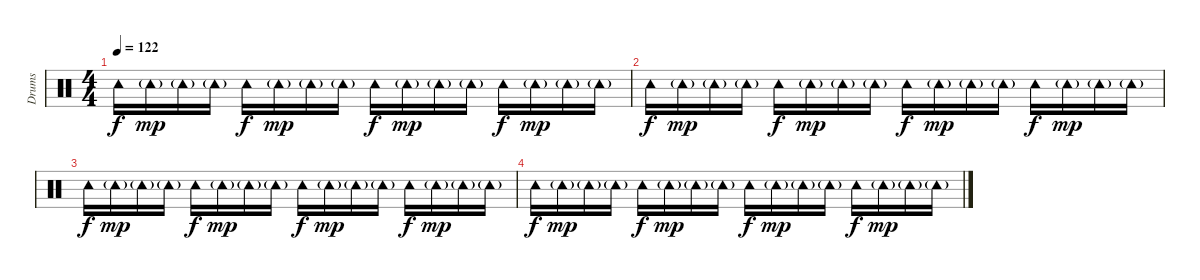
\track ("Drums" "Drums") {instrument percussion}
\staff {score}
\articulation defaults
\ts (4 4)
\tempo 122
\clef neutral
\ks c "Tambourine (hit)".16{dy f} "Tambourine (hit)"{g}.16{dy mp} "Tambourine (hit)"{g}.16 "Tambourine (hit)"{g}.16 "Tambourine (hit)".16{dy f} "Tambourine (hit)"{g}.16{dy mp} "Tambourine (hit)"{g}.16 "Tambourine (hit)"{g}.16 "Tambourine (hit)".16{dy f} "Tambourine (hit)"{g}.16{dy mp} "Tambourine (hit)"{g}.16 "Tambourine (hit)"{g}.16 "Tambourine (hit)".16{dy f} "Tambourine (hit)"{g}.16{dy mp} "Tambourine (hit)"{g}.16 "Tambourine (hit)"{g}.16
|
"Tambourine (hit)".16{dy f} "Tambourine (hit)"{g}.16{dy mp} "Tambourine (hit)"{g}.16 "Tambourine (hit)"{g}.16 "Tambourine (hit)".16{dy f} "Tambourine (hit)"{g}.16{dy mp} "Tambourine (hit)"{g}.16 "Tambourine (hit)"{g}.16 "Tambourine (hit)".16{dy f} "Tambourine (hit)"{g}.16{dy mp} "Tambourine (hit)"{g}.16 "Tambourine (hit)"{g}.16 "Tambourine (hit)".16{dy f} "Tambourine (hit)"{g}.16{dy mp} "Tambourine (hit)"{g}.16 "Tambourine (hit)"{g}.16 |
"Tambourine (hit)".16{dy f} "Tambourine (hit)"{g}.16{dy mp} "Tambourine (hit)"{g}.16 "Tambourine (hit)"{g}.16 "Tambourine (hit)".16{dy f} "Tambourine (hit)"{g}.16{dy mp} "Tambourine (hit)"{g}.16 "Tambourine (hit)"{g}.16 "Tambourine (hit)".16{dy f} "Tambourine (hit)"{g}.16{dy mp} "Tambourine (hit)"{g}.16 "Tambourine (hit)"{g}.16 "Tambourine (hit)".16{dy f} "Tambourine (hit)"{g}.16{dy mp} "Tambourine (hit)"{g}.16 "Tambourine (hit)"{g}.16 |
"Tambourine (hit)".16{dy f} "Tambourine (hit)"{g}.16{dy mp} "Tambourine (hit)"{g}.16 "Tambourine (hit)"{g}.16 "Tambourine (hit)".16{dy f} "Tambourine (hit)"{g}.16{dy mp} "Tambourine (hit)"{g}.16 "Tambourine (hit)"{g}.16 "Tambourine (hit)".16{dy f} "Tambourine (hit)"{g}.16{dy mp} "Tambourine (hit)"{g}.16 "Tambourine (hit)"{g}.16 "Tambourine (hit)".16{dy f} "Tambourine (hit)"{g}.16{dy mp} "Tambourine (hit)"{g}.16 "Tambourine (hit)"{g}.16
